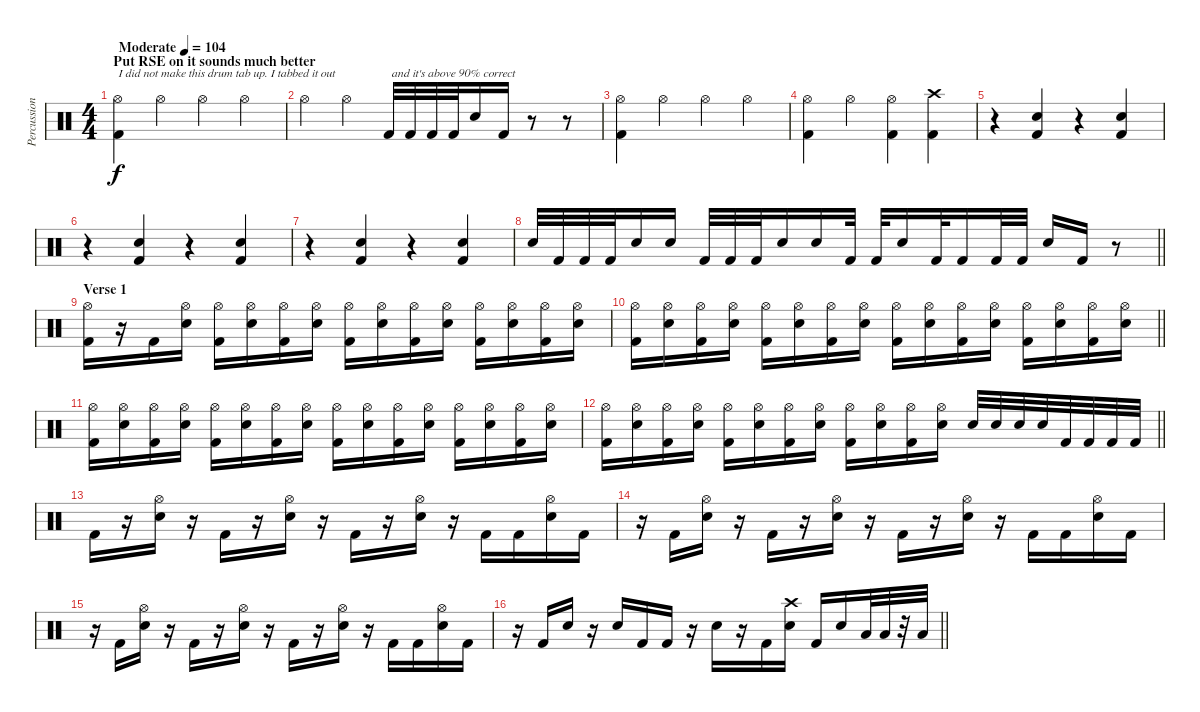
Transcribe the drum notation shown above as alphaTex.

\track ("Percussion" "Percussion") {instrument percussion}
\staff {score}
\articulation defaults
\ts (4 4)
\section ("" "Put RSE on it sounds much better")
\tempo (104 "Moderate")
\clef neutral
\ks c
("Hi-Hat (open)" "Kick (hit) 2").4{txt "I did not make this drum tab up. I tabbed it out" dy f} "Hi-Hat (open)".4 "Hi-Hat (open)".4 "Hi-Hat (open)".4 |
"Hi-Hat (open)".4 "Hi-Hat (open)".4 "Kick (hit) 2".32{txt " and it's above 90% correct"} "Kick (hit) 2".32 "Kick (hit) 2".32 "Kick (hit) 2".32 "Snare (hit) 2".16 "Kick (hit) 2".16 r.8 r.8 |
("Hi-Hat (open)" "Kick (hit) 2").4 "Hi-Hat (open)".4 "Hi-Hat (open)".4 "Hi-Hat (open)".4 |
("Hi-Hat (open)" "Kick (hit) 2").4 "Hi-Hat (open)".4 ("Hi-Hat (open)" "Kick (hit) 2").4 ("Crash high (hit)" "Kick (hit) 2").4 |
r.4 ("Snare (hit) 2" "Kick (hit) 2").4 r.4 ("Snare (hit) 2" "Kick (hit) 2").4 |
r.4 ("Snare (hit) 2" "Kick (hit) 2").4 r.4 ("Snare (hit) 2" "Kick (hit) 2").4 |
r.4 ("Snare (hit) 2" "Kick (hit) 2").4 r.4 ("Snare (hit) 2" "Kick (hit) 2").4 |
\barLineRight lightlight "Snare (hit) 2".32 "Kick (hit) 2".32 "Kick (hit) 2".32 "Kick (hit) 2".32 "Snare (hit) 2".16 "Snare (hit) 2".16 "Kick (hit) 2".32 "Kick (hit) 2".32 "Kick (hit) 2".32 "Snare (hit) 2".16 "Snare (hit) 2".16 "Kick (hit) 2".32 "Kick (hit) 2".32 "Snare (hit) 2".16 "Kick (hit) 2".32 "Kick (hit) 2".16 "Kick (hit) 2".32 "Kick (hit) 2".32 "Snare (hit) 2".16 "Kick (hit) 2".16
r.8 |
\section ("" "Verse 1")
("Hi-Hat (open)" "Kick (hit) 2").16 r.16 "Kick (hit) 2".16 ("Hi-Hat (open)" "Snare (hit) 2").16 ("Hi-Hat (open)" "Kick (hit) 2").16 ("Hi-Hat (open)" "Snare (hit) 2").16 ("Hi-Hat (open)" "Kick (hit) 2").16 ("Hi-Hat (open)" "Snare (hit) 2").16 ("Hi-Hat (open)" "Kick (hit) 2").16 ("Hi-Hat (open)" "Snare (hit) 2").16 ("Hi-Hat (open)" "Kick (hit) 2").16 ("Hi-Hat (open)" "Snare (hit) 2").16 ("Hi-Hat (open)" "Kick (hit) 2").16 ("Hi-Hat (open)" "Snare (hit) 2").16 ("Hi-Hat (open)" "Kick (hit) 2").16 ("Hi-Hat (open)" "Snare (hit) 2").16 |
\barLineRight lightlight
("Hi-Hat (open)" "Kick (hit) 2").16 ("Hi-Hat (open)" "Snare (hit) 2").16 ("Hi-Hat (open)" "Kick (hit) 2").16 ("Hi-Hat (open)" "Snare (hit) 2").16 ("Hi-Hat (open)" "Kick (hit) 2").16 ("Hi-Hat (open)" "Snare (hit) 2").16 ("Hi-Hat (open)" "Kick (hit) 2").16 ("Hi-Hat (open)" "Snare (hit) 2").16 ("Hi-Hat (open)" "Kick (hit) 2").16 ("Hi-Hat (open)" "Snare (hit) 2").16 ("Hi-Hat (open)" "Kick (hit) 2").16 ("Hi-Hat (open)" "Snare (hit) 2").16 ("Hi-Hat (open)" "Kick (hit) 2").16 ("Hi-Hat (open)" "Snare (hit) 2").16 ("Hi-Hat (open)" "Kick (hit) 2").16 ("Hi-Hat (open)" "Snare (hit) 2").16 |
("Hi-Hat (open)" "Kick (hit) 2").16 ("Hi-Hat (open)" "Snare (hit) 2").16 ("Hi-Hat (open)" "Kick (hit) 2").16 ("Hi-Hat (open)" "Snare (hit) 2").16 ("Hi-Hat (open)" "Kick (hit) 2").16 ("Hi-Hat (open)" "Snare (hit) 2").16 ("Hi-Hat (open)" "Kick (hit) 2").16 ("Hi-Hat (open)" "Snare (hit) 2").16 ("Hi-Hat (open)" "Kick (hit) 2").16 ("Hi-Hat (open)" "Snare (hit) 2").16 ("Hi-Hat (open)" "Kick (hit) 2").16 ("Hi-Hat (open)" "Snare (hit) 2").16 ("Hi-Hat (open)" "Kick (hit) 2").16 ("Hi-Hat (open)" "Snare (hit) 2").16 ("Hi-Hat (open)" "Kick (hit) 2").16 ("Hi-Hat (open)" "Snare (hit) 2").16 |
\barLineRight lightlight
("Hi-Hat (open)" "Kick (hit) 2").16 ("Hi-Hat (open)" "Snare (hit) 2").16 ("Hi-Hat (open)" "Kick (hit) 2").16 ("Hi-Hat (open)" "Snare (hit) 2").16 ("Hi-Hat (open)" "Kick (hit) 2").16 ("Hi-Hat (open)" "Snare (hit) 2").16 ("Hi-Hat (open)" "Kick (hit) 2").16 ("Hi-Hat (open)" "Snare (hit) 2").16 ("Hi-Hat (open)" "Kick (hit) 2").16 ("Hi-Hat (open)" "Snare (hit) 2").16 ("Hi-Hat (open)" "Kick (hit) 2").16 ("Hi-Hat (open)" "Snare (hit) 2").16 "Snare (hit) 2".32 "Snare (hit) 2".32 "Snare (hit) 2".32 "Snare (hit) 2".32 "Kick (hit) 2".32 "Kick (hit) 2".32 "Kick (hit) 2".32 "Kick (hit) 2".32 |
"Kick (hit) 2".16 r.16 ("Hi-Hat (open)" "Snare (hit) 2").16 r.16 "Kick (hit) 2".16 r.16 ("Hi-Hat (open)" "Snare (hit) 2").16 r.16 "Kick (hit) 2".16 r.16 ("Hi-Hat (open)" "Snare (hit) 2").16 r.16 "Kick (hit) 2".16 "Kick (hit) 2".16 ("Hi-Hat (open)" "Snare (hit) 2").16 "Kick (hit) 2".16 |
r.16 "Kick (hit) 2".16 ("Hi-Hat (open)" "Snare (hit) 2").16 r.16 "Kick (hit) 2".16 r.16 ("Hi-Hat (open)" "Snare (hit) 2").16 r.16 "Kick (hit) 2".16 r.16 ("Hi-Hat (open)" "Snare (hit) 2").16 r.16 "Kick (hit) 2".16 "Kick (hit) 2".16 ("Hi-Hat (open)" "Snare (hit) 2").16 "Kick (hit) 2".16 |
r.16 "Kick (hit) 2".16 ("Hi-Hat (open)" "Snare (hit) 2").16 r.16 "Kick (hit) 2".16 r.16 ("Hi-Hat (open)" "Snare (hit) 2").16 r.16 "Kick (hit) 2".16 r.16 ("Hi-Hat (open)" "Snare (hit) 2").16 r.16 "Kick (hit) 2".16 "Kick (hit) 2".16 ("Hi-Hat (open)" "Snare (hit) 2").16 "Kick (hit) 2".16 |
\barLineRight lightlight
r.16 "Kick (hit) 2".16 "Snare (hit) 2".16 r.16 "Snare (hit) 2".16 "Kick (hit) 2".16 "Kick (hit) 2".16 r.16 "Snare (hit) 2".16 r.16 "Kick (hit) 2".16 ("Crash high (hit)" "Snare (hit) 2").16 "Kick (hit) 2".16 "Snare (hit) 2".16 "Low Tom (hit)".32 "Low Tom (hit)".32 r.32 "Low Tom (hit)".32
